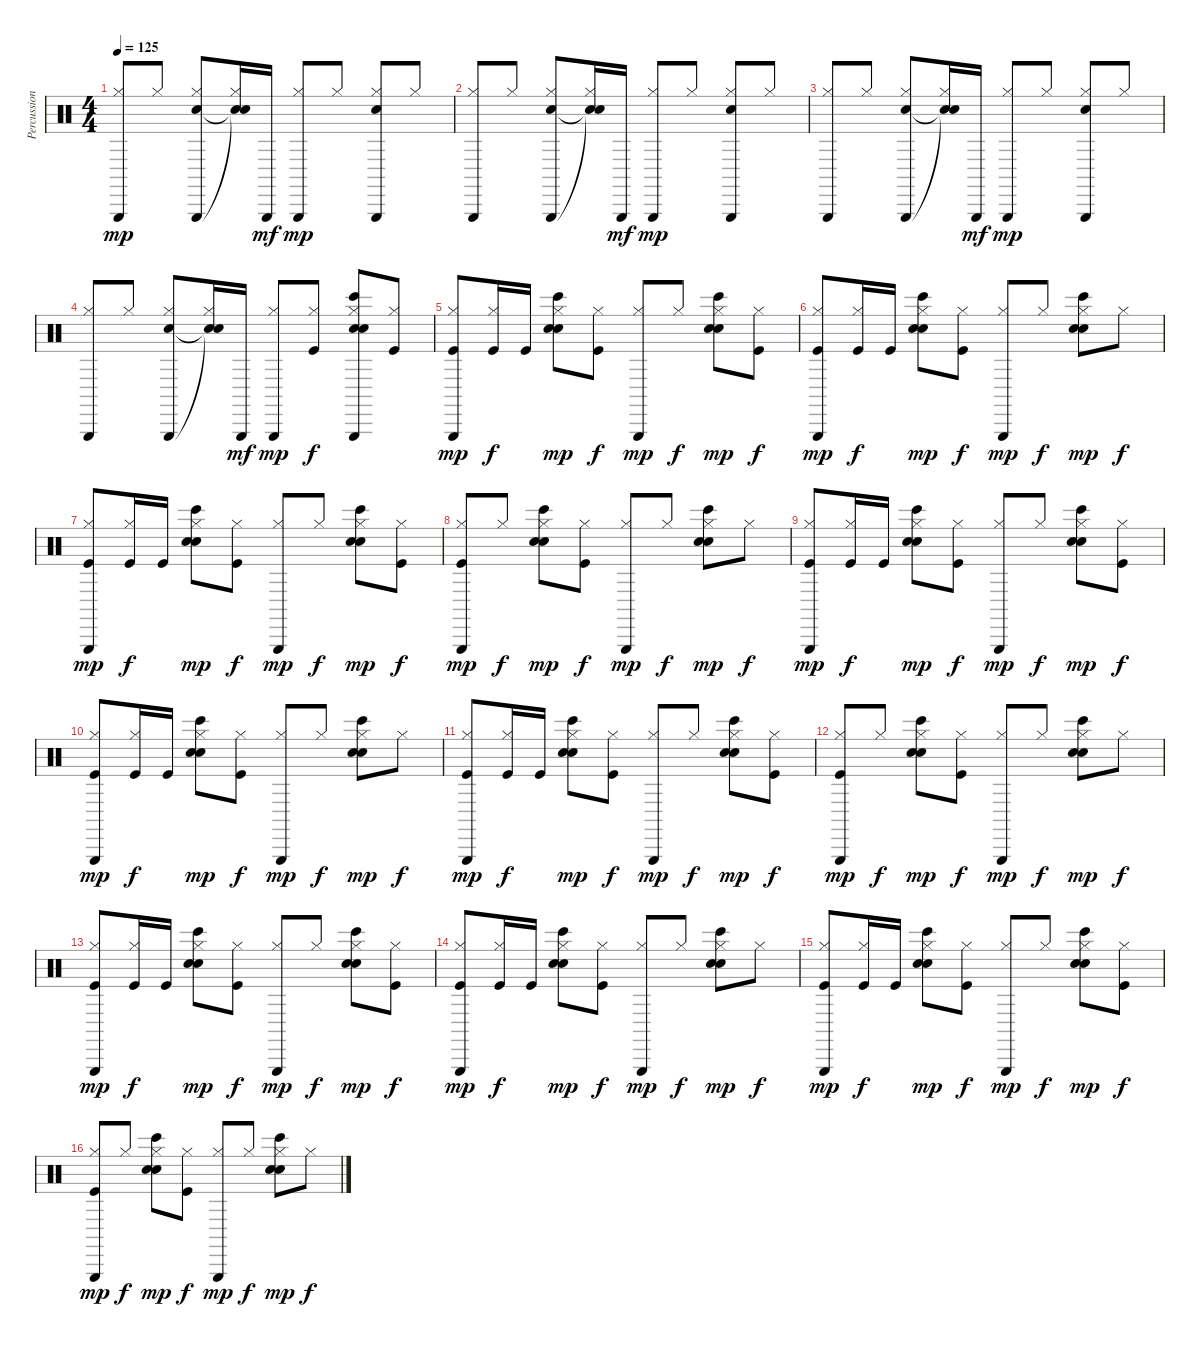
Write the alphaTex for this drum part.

\track ("Percussion" "Percussion") {instrument percussion}
\staff {score}
\articulation defaults
\ts (4 4)
\tempo 125
\clef neutral
\ks c
("Triangle (hit)" "Hi-Hat (closed)").8{dy mp} "Hi-Hat (closed)".8 ("Triangle (hit)" "Snare (hit) 2" "Hi-Hat (closed)").8 ("Snare (hit)"{t} "Snare (hit)"{t} "Hi-Hat (closed)").16 "Triangle (hit)".16{dy mf} ("Triangle (hit)" "Hi-Hat (closed)").8{dy mp} "Hi-Hat (closed)".8 ("Triangle (hit)" "Snare (hit) 2" "Hi-Hat (closed)").8 "Hi-Hat (closed)".8 |
("Triangle (hit)" "Hi-Hat (closed)").8 "Hi-Hat (closed)".8 ("Triangle (hit)" "Snare (hit) 2" "Hi-Hat (closed)").8 ("Snare (hit)"{t} "Snare (hit)"{t} "Hi-Hat (closed)").16 "Triangle (hit)".16{dy mf} ("Triangle (hit)" "Hi-Hat (closed)").8{dy mp} "Hi-Hat (closed)".8 ("Triangle (hit)" "Snare (hit) 2" "Hi-Hat (closed)").8 "Hi-Hat (closed)".8 |
("Triangle (hit)" "Hi-Hat (closed)").8 "Hi-Hat (closed)".8 ("Triangle (hit)" "Snare (hit) 2" "Hi-Hat (closed)").8 ("Snare (hit)"{t} "Snare (hit)"{t} "Hi-Hat (closed)").16 "Triangle (hit)".16{dy mf} ("Triangle (hit)" "Hi-Hat (closed)").8{dy mp} "Hi-Hat (closed)".8 ("Triangle (hit)" "Snare (hit) 2" "Hi-Hat (closed)").8 "Hi-Hat (closed)".8 |
("Triangle (hit)" "Hi-Hat (closed)").8 "Hi-Hat (closed)".8 ("Triangle (hit)" "Snare (hit) 2" "Hi-Hat (closed)").8 ("Snare (hit)"{t} "Snare (hit)"{t} "Hi-Hat (closed)").16 "Triangle (hit)".16{dy mf} ("Triangle (hit)" "Hi-Hat (closed)").8{dy mp} ("Hi-Hat (closed)" "Kick (hit)").8{dy f} ("Triangle (hit)" "Electric Snare (hit)" "Bongo High (hit)" "Hi-Hat (closed)" "Electric Snare (hit)").8 ("Hi-Hat (closed)" "Kick (hit)").8 |
("Hi-Hat (closed)" "Triangle (hit)" "Kick (hit)").8{dy mp} ("Hi-Hat (closed)" "Kick (hit)").16{dy f} "Kick (hit)".16 ("Hi-Hat (closed)" "Electric Snare (hit)" "Bongo High (hit)" "Electric Snare (hit)").8{dy mp} ("Hi-Hat (closed)" "Kick (hit)").8{dy f} ("Hi-Hat (closed)" "Triangle (hit)").8{dy mp} "Hi-Hat (closed)".8{dy f} ("Hi-Hat (closed)" "Electric Snare (hit)" "Bongo High (hit)" "Electric Snare (hit)").8{dy mp} ("Hi-Hat (closed)" "Kick (hit)").8{dy f} |
("Hi-Hat (closed)" "Triangle (hit)" "Kick (hit)").8{dy mp} ("Hi-Hat (closed)" "Kick (hit)").16{dy f} "Kick (hit)".16 ("Hi-Hat (closed)" "Electric Snare (hit)" "Bongo High (hit)" "Electric Snare (hit)").8{dy mp} ("Hi-Hat (closed)" "Kick (hit)").8{dy f} ("Hi-Hat (closed)" "Triangle (hit)").8{dy mp} "Hi-Hat (closed)".8{dy f} ("Hi-Hat (closed)" "Electric Snare (hit)" "Bongo High (hit)" "Electric Snare (hit)").8{dy mp} "Hi-Hat (closed)".8{dy f} |
("Hi-Hat (closed)" "Triangle (hit)" "Kick (hit)").8{dy mp} ("Hi-Hat (closed)" "Kick (hit)").16{dy f} "Kick (hit)".16 ("Hi-Hat (closed)" "Electric Snare (hit)" "Bongo High (hit)" "Electric Snare (hit)").8{dy mp} ("Hi-Hat (closed)" "Kick (hit)").8{dy f} ("Hi-Hat (closed)" "Triangle (hit)").8{dy mp} "Hi-Hat (closed)".8{dy f} ("Hi-Hat (closed)" "Electric Snare (hit)" "Bongo High (hit)" "Electric Snare (hit)").8{dy mp} ("Hi-Hat (closed)" "Kick (hit)").8{dy f} |
("Hi-Hat (closed)" "Triangle (hit)" "Kick (hit)").8{dy mp} "Hi-Hat (closed)".8{dy f} ("Hi-Hat (closed)" "Electric Snare (hit)" "Bongo High (hit)" "Electric Snare (hit)").8{dy mp} ("Hi-Hat (closed)" "Kick (hit)").8{dy f} ("Hi-Hat (closed)" "Triangle (hit)").8{dy mp} "Hi-Hat (closed)".8{dy f} ("Hi-Hat (closed)" "Electric Snare (hit)" "Bongo High (hit)" "Electric Snare (hit)").8{dy mp} "Hi-Hat (closed)".8{dy f} |
("Hi-Hat (closed)" "Triangle (hit)" "Kick (hit)").8{dy mp} ("Hi-Hat (closed)" "Kick (hit)").16{dy f} "Kick (hit)".16 ("Hi-Hat (closed)" "Electric Snare (hit)" "Bongo High (hit)" "Electric Snare (hit)").8{dy mp} ("Hi-Hat (closed)" "Kick (hit)").8{dy f} ("Hi-Hat (closed)" "Triangle (hit)").8{dy mp} "Hi-Hat (closed)".8{dy f} ("Hi-Hat (closed)" "Electric Snare (hit)" "Bongo High (hit)" "Electric Snare (hit)").8{dy mp} ("Hi-Hat (closed)" "Kick (hit)").8{dy f} |
("Hi-Hat (closed)" "Triangle (hit)" "Kick (hit)").8{dy mp} ("Hi-Hat (closed)" "Kick (hit)").16{dy f} "Kick (hit)".16 ("Hi-Hat (closed)" "Electric Snare (hit)" "Bongo High (hit)" "Electric Snare (hit)").8{dy mp} ("Hi-Hat (closed)" "Kick (hit)").8{dy f} ("Hi-Hat (closed)" "Triangle (hit)").8{dy mp} "Hi-Hat (closed)".8{dy f} ("Hi-Hat (closed)" "Electric Snare (hit)" "Bongo High (hit)" "Electric Snare (hit)").8{dy mp} "Hi-Hat (closed)".8{dy f} |
("Hi-Hat (closed)" "Triangle (hit)" "Kick (hit)").8{dy mp} ("Hi-Hat (closed)" "Kick (hit)").16{dy f} "Kick (hit)".16 ("Hi-Hat (closed)" "Electric Snare (hit)" "Bongo High (hit)" "Electric Snare (hit)").8{dy mp} ("Hi-Hat (closed)" "Kick (hit)").8{dy f} ("Hi-Hat (closed)" "Triangle (hit)").8{dy mp} "Hi-Hat (closed)".8{dy f} ("Hi-Hat (closed)" "Electric Snare (hit)" "Bongo High (hit)" "Electric Snare (hit)").8{dy mp} ("Hi-Hat (closed)" "Kick (hit)").8{dy f} |
("Hi-Hat (closed)" "Triangle (hit)" "Kick (hit)").8{dy mp} "Hi-Hat (closed)".8{dy f} ("Hi-Hat (closed)" "Electric Snare (hit)" "Bongo High (hit)" "Electric Snare (hit)").8{dy mp} ("Hi-Hat (closed)" "Kick (hit)").8{dy f} ("Hi-Hat (closed)" "Triangle (hit)").8{dy mp} "Hi-Hat (closed)".8{dy f} ("Hi-Hat (closed)" "Electric Snare (hit)" "Bongo High (hit)" "Electric Snare (hit)").8{dy mp} "Hi-Hat (closed)".8{dy f} |
("Hi-Hat (closed)" "Triangle (hit)" "Kick (hit)").8{dy mp} ("Hi-Hat (closed)" "Kick (hit)").16{dy f} "Kick (hit)".16 ("Hi-Hat (closed)" "Electric Snare (hit)" "Bongo High (hit)" "Electric Snare (hit)").8{dy mp} ("Hi-Hat (closed)" "Kick (hit)").8{dy f} ("Hi-Hat (closed)" "Triangle (hit)").8{dy mp} "Hi-Hat (closed)".8{dy f} ("Hi-Hat (closed)" "Electric Snare (hit)" "Bongo High (hit)" "Electric Snare (hit)").8{dy mp} ("Hi-Hat (closed)" "Kick (hit)").8{dy f} |
("Hi-Hat (closed)" "Triangle (hit)" "Kick (hit)").8{dy mp} ("Hi-Hat (closed)" "Kick (hit)").16{dy f} "Kick (hit)".16 ("Hi-Hat (closed)" "Electric Snare (hit)" "Bongo High (hit)" "Electric Snare (hit)").8{dy mp} ("Hi-Hat (closed)" "Kick (hit)").8{dy f} ("Hi-Hat (closed)" "Triangle (hit)").8{dy mp} "Hi-Hat (closed)".8{dy f} ("Hi-Hat (closed)" "Electric Snare (hit)" "Bongo High (hit)" "Electric Snare (hit)").8{dy mp} "Hi-Hat (closed)".8{dy f} |
("Hi-Hat (closed)" "Triangle (hit)" "Kick (hit)").8{dy mp} ("Hi-Hat (closed)" "Kick (hit)").16{dy f} "Kick (hit)".16 ("Hi-Hat (closed)" "Electric Snare (hit)" "Bongo High (hit)" "Electric Snare (hit)").8{dy mp} ("Hi-Hat (closed)" "Kick (hit)").8{dy f} ("Hi-Hat (closed)" "Triangle (hit)").8{dy mp} "Hi-Hat (closed)".8{dy f} ("Hi-Hat (closed)" "Electric Snare (hit)" "Bongo High (hit)" "Electric Snare (hit)").8{dy mp} ("Hi-Hat (closed)" "Kick (hit)").8{dy f} |
("Hi-Hat (closed)" "Triangle (hit)" "Kick (hit)").8{dy mp} "Hi-Hat (closed)".8{dy f} ("Hi-Hat (closed)" "Electric Snare (hit)" "Bongo High (hit)" "Electric Snare (hit)").8{dy mp} ("Hi-Hat (closed)" "Kick (hit)").8{dy f} ("Hi-Hat (closed)" "Triangle (hit)").8{dy mp} "Hi-Hat (closed)".8{dy f} ("Hi-Hat (closed)" "Electric Snare (hit)" "Bongo High (hit)" "Electric Snare (hit)").8{dy mp} "Hi-Hat (closed)".8{dy f}
